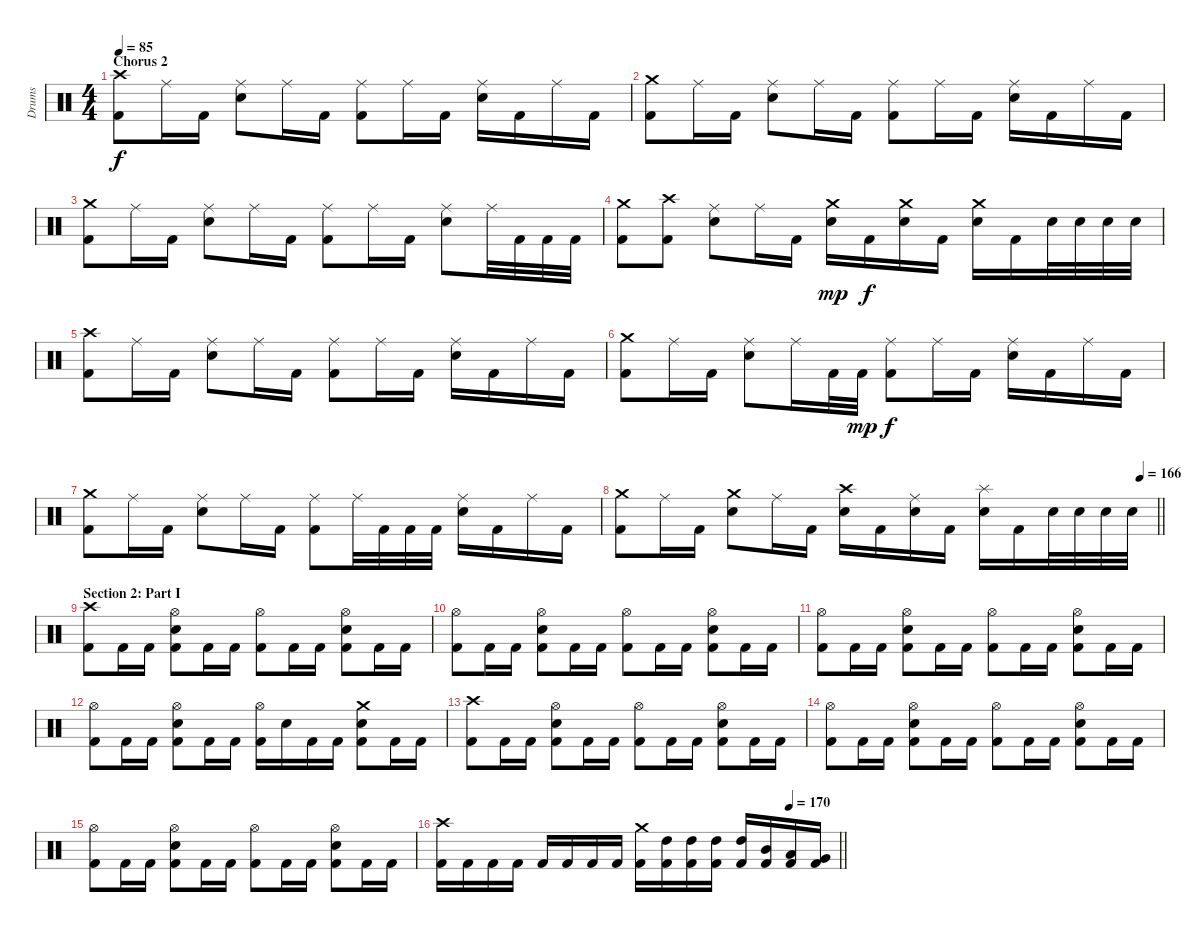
\track ("Drums" "Drums") {instrument percussion}
\staff {score}
\articulation defaults
\ts (4 4)
\section ("" "Chorus 2")
\tempo 85
\clef neutral
\ks c
("Crash high (hit)" "Kick (hit) 2").8{dy f} "Ride (middle)".16 "Kick (hit) 2".16 ("Ride (middle)" "Electric Snare (hit)").8 "Ride (middle)".16 "Kick (hit) 2".16 ("Ride (middle)" "Kick (hit) 2").8 "Ride (middle)".16 "Kick (hit) 2".16 ("Ride (middle)" "Electric Snare (hit)").16 "Kick (hit) 2".16 "Ride (middle)".16 "Kick (hit) 2".16 |
("Crash medium (hit)" "Kick (hit) 2").8 "Ride (middle)".16 "Kick (hit) 2".16 ("Ride (middle)" "Electric Snare (hit)").8 "Ride (middle)".16 "Kick (hit) 2".16 ("Ride (middle)" "Kick (hit) 2").8 "Ride (middle)".16 "Kick (hit) 2".16 ("Ride (middle)" "Electric Snare (hit)").16 "Kick (hit) 2".16 "Ride (middle)".16 "Kick (hit) 2".16 |
("Crash medium (hit)" "Kick (hit) 2").8 "Ride (middle)".16 "Kick (hit) 2".16 ("Ride (middle)" "Electric Snare (hit)").8 "Ride (middle)".16 "Kick (hit) 2".16 ("Ride (middle)" "Kick (hit) 2").8 "Ride (middle)".16 "Kick (hit) 2".16 ("Ride (middle)" "Electric Snare (hit)").8 "Ride (middle)".32 "Kick (hit) 2".32 "Kick (hit) 2".32 "Kick (hit) 2".32 |
("Crash medium (hit)" "Kick (hit) 2").8 ("Crash high (hit)" "Kick (hit) 2").8 ("Ride (middle)" "Electric Snare (hit)").8 "Ride (middle)".16 "Kick (hit) 2".16 ("Crash medium (hit)" "Electric Snare (hit)").16{dy mp} "Kick (hit) 2".16{dy f} ("Crash medium (hit)" "Electric Snare (hit)").16 "Kick (hit) 2".16 ("Crash medium (hit)" "Electric Snare (hit)").16 "Kick (hit) 2".16 "Electric Snare (hit)".32 "Electric Snare (hit)".32 "Electric Snare (hit)".32 "Electric Snare (hit)".32 |
("Crash high (hit)" "Kick (hit) 2").8 "Ride (middle)".16 "Kick (hit) 2".16 ("Ride (middle)" "Electric Snare (hit)").8 "Ride (middle)".16 "Kick (hit) 2".16 ("Ride (middle)" "Kick (hit) 2").8 "Ride (middle)".16 "Kick (hit) 2".16 ("Ride (middle)" "Electric Snare (hit)").16 "Kick (hit) 2".16 "Ride (middle)".16 "Kick (hit) 2".16 |
("Crash medium (hit)" "Kick (hit) 2").8 "Ride (middle)".16 "Kick (hit) 2".16 ("Ride (middle)" "Electric Snare (hit)").8 "Ride (middle)".16 "Kick (hit) 2".32 "Kick (hit) 2".32{dy mp} ("Ride (middle)" "Kick (hit) 2").8{dy f} "Ride (middle)".16 "Kick (hit) 2".16 ("Ride (middle)" "Electric Snare (hit)").16 "Kick (hit) 2".16 "Ride (middle)".16 "Kick (hit) 2".16 |
("Crash medium (hit)" "Kick (hit) 2").8 "Ride (middle)".16 "Kick (hit) 2".16 ("Ride (middle)" "Electric Snare (hit)").8 "Ride (middle)".16 "Kick (hit) 2".16 ("Ride (middle)" "Kick (hit) 2").8 "Ride (middle)".32 "Kick (hit) 2".32 "Kick (hit) 2".32 "Kick (hit) 2".32 ("Ride (middle)" "Electric Snare (hit)").16 "Kick (hit) 2".16 "Ride (middle)".16 "Kick (hit) 2".16 |
\tempo (166 0.96875)
\barLineRight lightlight
("Crash medium (hit)" "Kick (hit) 2").8 "Ride (middle)".16 "Kick (hit) 2".16 ("Crash medium (hit)" "Electric Snare (hit)").8 "Ride (middle)".16 "Kick (hit) 2".16 ("Crash high (hit)" "Electric Snare (hit)").16 "Kick (hit) 2".16 ("Ride (middle)" "Electric Snare (hit)").16 "Kick (hit) 2".16 ("Splash (hit)" "Electric Snare (hit)").16 "Kick (hit) 2".16 "Electric Snare (hit)".32 "Electric Snare (hit)".32 "Electric Snare (hit)".32 "Electric Snare (hit)".32 |
\section ("" "Section 2: Part I")
("Crash high (hit)" "Kick (hit) 2").8 "Kick (hit) 2".16 "Kick (hit) 2".16 ("Hi-Hat (open)" "Electric Snare (hit)" "Kick (hit) 2").8 "Kick (hit) 2".16 "Kick (hit) 2".16 ("Hi-Hat (open)" "Kick (hit) 2").8 "Kick (hit) 2".16 "Kick (hit) 2".16 ("Hi-Hat (open)" "Electric Snare (hit)" "Kick (hit) 2").8 "Kick (hit) 2".16 "Kick (hit) 2".16 |
("Hi-Hat (open)" "Kick (hit) 2").8 "Kick (hit) 2".16 "Kick (hit) 2".16 ("Hi-Hat (open)" "Electric Snare (hit)" "Kick (hit) 2").8 "Kick (hit) 2".16 "Kick (hit) 2".16 ("Hi-Hat (open)" "Kick (hit) 2").8 "Kick (hit) 2".16 "Kick (hit) 2".16 ("Hi-Hat (open)" "Electric Snare (hit)" "Kick (hit) 2").8 "Kick (hit) 2".16 "Kick (hit) 2".16 |
("Hi-Hat (open)" "Kick (hit) 2").8 "Kick (hit) 2".16 "Kick (hit) 2".16 ("Hi-Hat (open)" "Electric Snare (hit)" "Kick (hit) 2").8 "Kick (hit) 2".16 "Kick (hit) 2".16 ("Hi-Hat (open)" "Kick (hit) 2").8 "Kick (hit) 2".16 "Kick (hit) 2".16 ("Hi-Hat (open)" "Electric Snare (hit)" "Kick (hit) 2").8 "Kick (hit) 2".16 "Kick (hit) 2".16 |
("Hi-Hat (open)" "Kick (hit) 2").8 "Kick (hit) 2".16 "Kick (hit) 2".16 ("Hi-Hat (open)" "Electric Snare (hit)" "Kick (hit) 2").8 "Kick (hit) 2".16 "Kick (hit) 2".16 ("Hi-Hat (open)" "Kick (hit) 2").16 "Electric Snare (hit)".16 "Kick (hit) 2".16 "Kick (hit) 2".16 ("Crash medium (hit)" "Electric Snare (hit)" "Kick (hit) 2").8 "Kick (hit) 2".16 "Kick (hit) 2".16 |
("Crash high (hit)" "Kick (hit) 2").8 "Kick (hit) 2".16 "Kick (hit) 2".16 ("Hi-Hat (open)" "Electric Snare (hit)" "Kick (hit) 2").8 "Kick (hit) 2".16 "Kick (hit) 2".16 ("Hi-Hat (open)" "Kick (hit) 2").8 "Kick (hit) 2".16 "Kick (hit) 2".16 ("Hi-Hat (open)" "Electric Snare (hit)" "Kick (hit) 2").8 "Kick (hit) 2".16 "Kick (hit) 2".16 |
("Hi-Hat (open)" "Kick (hit) 2").8 "Kick (hit) 2".16 "Kick (hit) 2".16 ("Hi-Hat (open)" "Electric Snare (hit)" "Kick (hit) 2").8 "Kick (hit) 2".16 "Kick (hit) 2".16 ("Hi-Hat (open)" "Kick (hit) 2").8 "Kick (hit) 2".16 "Kick (hit) 2".16 ("Hi-Hat (open)" "Electric Snare (hit)" "Kick (hit) 2").8 "Kick (hit) 2".16 "Kick (hit) 2".16 |
("Hi-Hat (open)" "Kick (hit) 2").8 "Kick (hit) 2".16 "Kick (hit) 2".16 ("Hi-Hat (open)" "Electric Snare (hit)" "Kick (hit) 2").8 "Kick (hit) 2".16 "Kick (hit) 2".16 ("Hi-Hat (open)" "Kick (hit) 2").8 "Kick (hit) 2".16 "Kick (hit) 2".16 ("Hi-Hat (open)" "Electric Snare (hit)" "Kick (hit) 2").8 "Kick (hit) 2".16 "Kick (hit) 2".16 |
\tempo (170 0.875)
\barLineRight lightlight
("Crash high (hit)" "Kick (hit) 2").16 "Kick (hit) 2".16 "Kick (hit) 2".16 "Kick (hit) 2".16 "Kick (hit) 2".16 "Kick (hit) 2".16 "Kick (hit) 2".16 "Kick (hit) 2".16 ("Crash medium (hit)" "Kick (hit) 2").16 ("High Tom (hit)" "Kick (hit) 2").16 ("High Tom (hit)" "Kick (hit) 2").16 ("High Tom (hit)" "Kick (hit) 2").16 ("High Tom (hit)" "Kick (hit) 2").16 ("Mid Tom (hit)" "Kick (hit) 2").16 ("Low Tom (hit)" "Kick (hit) 2").16 ("Very Low Tom (hit)" "Kick (hit) 2").16
